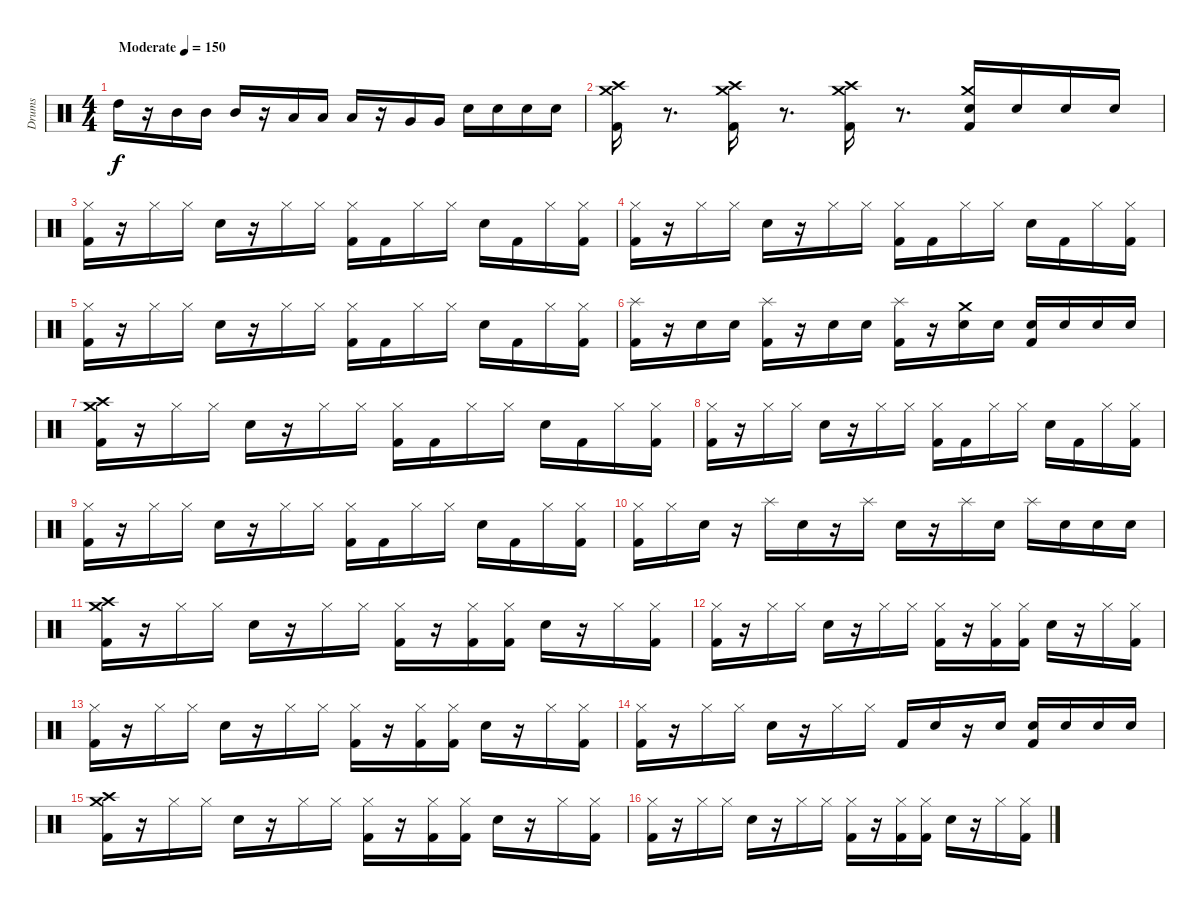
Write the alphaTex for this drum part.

\track ("Drums" "Drums") {instrument percussion}
\staff {score}
\articulation defaults
\ts (4 4)
\section ("" "")
\tempo (150 "Moderate")
\clef neutral
\ks c "High Tom (hit)".16{dy f volume 13}
r.16 "Mid Tom (hit)".16 "Mid Tom (hit)".16 "Mid Tom (hit)".16 r.16 "Low Tom (hit)".16 "Low Tom (hit)".16 "Low Tom (hit)".16 r.16 "Very Low Tom (hit)".16 "Very Low Tom (hit)".16 "Snare (hit) 2".16 "Snare (hit) 2".16 "Snare (hit) 2".16 "Snare (hit) 2".16 |
("Crash medium (hit)" "Crash high (hit)" "Kick (hit) 2").16 r.8{d} ("Crash medium (hit)" "Crash high (hit)" "Kick (hit) 2").16 r.8{d} ("Crash medium (hit)" "Crash high (hit)" "Kick (hit) 2").16 r.8{d} ("Crash medium (hit)" "Snare (hit) 2" "Kick (hit) 2").16 "Snare (hit) 2".16 "Snare (hit) 2".16 "Snare (hit) 2".16 |
("Hi-Hat (closed)" "Kick (hit) 2").16 r.16 "Hi-Hat (closed)".16 "Hi-Hat (closed)".16 "Snare (hit) 2".16 r.16 "Hi-Hat (closed)".16 "Hi-Hat (closed)".16 ("Hi-Hat (closed)" "Kick (hit) 2").16 "Kick (hit) 2".16 "Hi-Hat (closed)".16 "Hi-Hat (closed)".16 "Snare (hit) 2".16 "Kick (hit) 2".16 "Hi-Hat (closed)".16 ("Hi-Hat (closed)" "Kick (hit) 2").16 |
("Hi-Hat (closed)" "Kick (hit) 2").16 r.16 "Hi-Hat (closed)".16 "Hi-Hat (closed)".16 "Snare (hit) 2".16 r.16 "Hi-Hat (closed)".16 "Hi-Hat (closed)".16 ("Hi-Hat (closed)" "Kick (hit) 2").16 "Kick (hit) 2".16 "Hi-Hat (closed)".16 "Hi-Hat (closed)".16 "Snare (hit) 2".16 "Kick (hit) 2".16 "Hi-Hat (closed)".16 ("Hi-Hat (closed)" "Kick (hit) 2").16 |
("Hi-Hat (closed)" "Kick (hit) 2").16 r.16 "Hi-Hat (closed)".16 "Hi-Hat (closed)".16 "Snare (hit) 2".16 r.16 "Hi-Hat (closed)".16 "Hi-Hat (closed)".16 ("Hi-Hat (closed)" "Kick (hit) 2").16 "Kick (hit) 2".16 "Hi-Hat (closed)".16 "Hi-Hat (closed)".16 "Snare (hit) 2".16 "Kick (hit) 2".16 "Hi-Hat (closed)".16 ("Hi-Hat (closed)" "Kick (hit) 2").16 |
("Splash (hit)" "Kick (hit) 2").16 r.16 "Snare (hit) 2".16 "Snare (hit) 2".16 ("Splash (hit)" "Kick (hit) 2").16 r.16 "Snare (hit) 2".16 "Snare (hit) 2".16 ("Splash (hit)" "Kick (hit) 2").16 r.16 ("Crash medium (hit)" "Snare (hit) 2").16 "Snare (hit) 2".16 ("Snare (hit) 2" "Kick (hit) 2").16 "Snare (hit) 2".16 "Snare (hit) 2".16 "Snare (hit) 2".16 |
("Crash medium (hit)" "Crash high (hit)" "Kick (hit) 2").16 r.16 "Hi-Hat (closed)".16 "Hi-Hat (closed)".16 "Snare (hit) 2".16 r.16 "Hi-Hat (closed)".16 "Hi-Hat (closed)".16 ("Hi-Hat (closed)" "Kick (hit) 2").16 "Kick (hit) 2".16 "Hi-Hat (closed)".16 "Hi-Hat (closed)".16 "Snare (hit) 2".16 "Kick (hit) 2".16 "Hi-Hat (closed)".16 ("Hi-Hat (closed)" "Kick (hit) 2").16 |
("Hi-Hat (closed)" "Kick (hit) 2").16 r.16 "Hi-Hat (closed)".16 "Hi-Hat (closed)".16 "Snare (hit) 2".16 r.16 "Hi-Hat (closed)".16 "Hi-Hat (closed)".16 ("Hi-Hat (closed)" "Kick (hit) 2").16 "Kick (hit) 2".16 "Hi-Hat (closed)".16 "Hi-Hat (closed)".16 "Snare (hit) 2".16 "Kick (hit) 2".16 "Hi-Hat (closed)".16 ("Hi-Hat (closed)" "Kick (hit) 2").16 |
("Hi-Hat (closed)" "Kick (hit) 2").16 r.16 "Hi-Hat (closed)".16 "Hi-Hat (closed)".16 "Snare (hit) 2".16 r.16 "Hi-Hat (closed)".16 "Hi-Hat (closed)".16 ("Hi-Hat (closed)" "Kick (hit) 2").16 "Kick (hit) 2".16 "Hi-Hat (closed)".16 "Hi-Hat (closed)".16 "Snare (hit) 2".16 "Kick (hit) 2".16 "Hi-Hat (closed)".16 ("Hi-Hat (closed)" "Kick (hit) 2").16 |
("Hi-Hat (closed)" "Kick (hit) 2").16 "Hi-Hat (closed)".16 "Snare (hit) 2".16 r.16 "Splash (hit)".16 "Snare (hit) 2".16 r.16 "Splash (hit)".16 "Snare (hit) 2".16 r.16 "Splash (hit)".16 "Snare (hit) 2".16 "Splash (hit)".16 "Snare (hit) 2".16 "Snare (hit) 2".16 "Snare (hit) 2".16 |
("Crash medium (hit)" "Crash high (hit)" "Kick (hit) 2").16 r.16 "Hi-Hat (closed)".16 "Hi-Hat (closed)".16 "Snare (hit) 2".16 r.16 "Hi-Hat (closed)".16 "Hi-Hat (closed)".16 ("Hi-Hat (closed)" "Kick (hit) 2").16 r.16 ("Hi-Hat (closed)" "Kick (hit) 2").16 ("Hi-Hat (closed)" "Kick (hit) 2").16 "Snare (hit) 2".16 r.16 "Hi-Hat (closed)".16 ("Hi-Hat (closed)" "Kick (hit) 2").16 |
("Hi-Hat (closed)" "Kick (hit) 2").16 r.16 "Hi-Hat (closed)".16 "Hi-Hat (closed)".16 "Snare (hit) 2".16 r.16 "Hi-Hat (closed)".16 "Hi-Hat (closed)".16 ("Hi-Hat (closed)" "Kick (hit) 2").16 r.16 ("Hi-Hat (closed)" "Kick (hit) 2").16 ("Hi-Hat (closed)" "Kick (hit) 2").16 "Snare (hit) 2".16 r.16 "Hi-Hat (closed)".16 ("Hi-Hat (closed)" "Kick (hit) 2").16 |
("Hi-Hat (closed)" "Kick (hit) 2").16 r.16 "Hi-Hat (closed)".16 "Hi-Hat (closed)".16 "Snare (hit) 2".16 r.16 "Hi-Hat (closed)".16 "Hi-Hat (closed)".16 ("Hi-Hat (closed)" "Kick (hit) 2").16 r.16 ("Hi-Hat (closed)" "Kick (hit) 2").16 ("Hi-Hat (closed)" "Kick (hit) 2").16 "Snare (hit) 2".16 r.16 "Hi-Hat (closed)".16 ("Hi-Hat (closed)" "Kick (hit) 2").16 |
("Hi-Hat (closed)" "Kick (hit) 2").16 r.16 "Hi-Hat (closed)".16 "Hi-Hat (closed)".16 "Snare (hit) 2".16 r.16 "Hi-Hat (closed)".16 "Hi-Hat (closed)".16 "Kick (hit) 2".16 "Snare (hit) 2".16 r.16 "Snare (hit) 2".16 ("Snare (hit) 2" "Kick (hit) 2").16 "Snare (hit) 2".16 "Snare (hit) 2".16 "Snare (hit) 2".16 |
("Crash medium (hit)" "Crash high (hit)" "Kick (hit) 2").16 r.16 "Hi-Hat (closed)".16 "Hi-Hat (closed)".16 "Snare (hit) 2".16 r.16 "Hi-Hat (closed)".16 "Hi-Hat (closed)".16 ("Hi-Hat (closed)" "Kick (hit) 2").16 r.16 ("Hi-Hat (closed)" "Kick (hit) 2").16 ("Hi-Hat (closed)" "Kick (hit) 2").16 "Snare (hit) 2".16 r.16 "Hi-Hat (closed)".16 ("Hi-Hat (closed)" "Kick (hit) 2").16 |
("Hi-Hat (closed)" "Kick (hit) 2").16 r.16 "Hi-Hat (closed)".16 "Hi-Hat (closed)".16 "Snare (hit) 2".16 r.16 "Hi-Hat (closed)".16 "Hi-Hat (closed)".16 ("Hi-Hat (closed)" "Kick (hit) 2").16 r.16 ("Hi-Hat (closed)" "Kick (hit) 2").16 ("Hi-Hat (closed)" "Kick (hit) 2").16 "Snare (hit) 2".16 r.16 "Hi-Hat (closed)".16 ("Hi-Hat (closed)" "Kick (hit) 2").16
